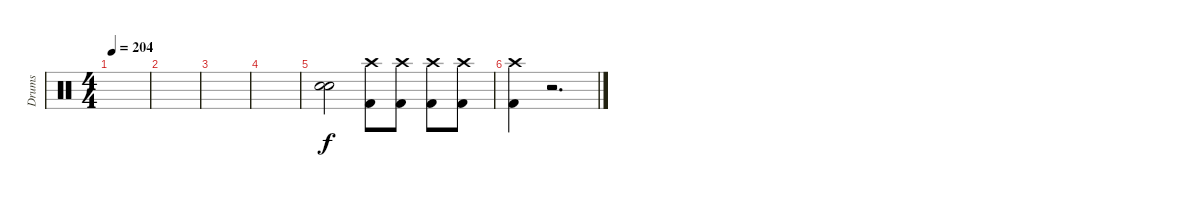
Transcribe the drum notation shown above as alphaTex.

\track ("Drums" "Drums") {instrument percussion}
\staff {score}
\articulation defaults
\ts (4 4)
\tempo 204
\clef neutral
\ks c
|
|
|
|
("Snare (hit)" "Snare (hit)").2 ("Kick (hit) 2" "Crash high (hit)").8 ("Kick (hit) 2" "Crash high (hit)").8 ("Kick (hit) 2" "Crash high (hit)").8 ("Kick (hit) 2" "Crash high (hit)").8 |
("Kick (hit) 2" "Crash high (hit)").4 r.2{d}
